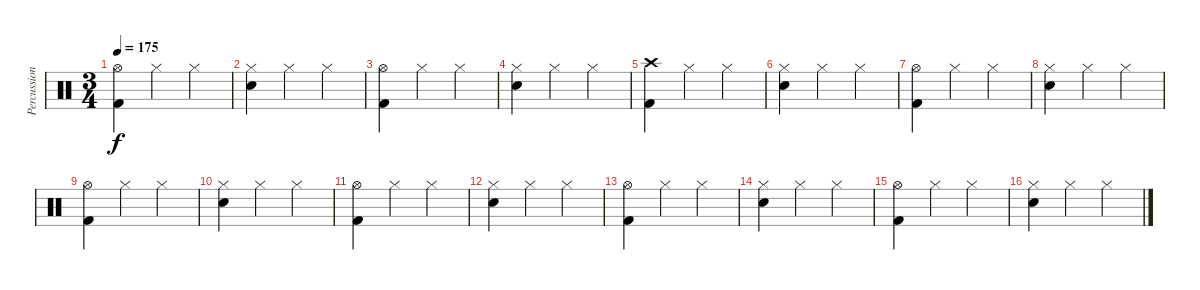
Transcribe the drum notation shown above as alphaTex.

\track ("Percussion" "Percussion") {instrument percussion}
\staff {score}
\articulation defaults
\ts (3 4)
\tempo 175
\clef neutral
\ks c
("Hi-Hat (open)" "Kick (hit) 2").4{dy f} "Hi-Hat (closed)".4 "Hi-Hat (closed)".4 |
("Electric Snare (hit)" "Hi-Hat (closed)").4 "Hi-Hat (closed)".4 "Hi-Hat (closed)".4 |
("Hi-Hat (open)" "Kick (hit) 2").4 "Hi-Hat (closed)".4 "Hi-Hat (closed)".4 |
("Electric Snare (hit)" "Hi-Hat (closed)").4 "Hi-Hat (closed)".4 "Hi-Hat (closed)".4 |
("Crash high (hit)" "Kick (hit) 2").4 "Hi-Hat (closed)".4 "Hi-Hat (closed)".4 |
("Electric Snare (hit)" "Hi-Hat (closed)").4 "Hi-Hat (closed)".4 "Hi-Hat (closed)".4 |
("Hi-Hat (open)" "Kick (hit) 2").4 "Hi-Hat (closed)".4 "Hi-Hat (closed)".4 |
("Electric Snare (hit)" "Hi-Hat (closed)").4 "Hi-Hat (closed)".4 "Hi-Hat (closed)".4 |
("Hi-Hat (open)" "Kick (hit) 2").4 "Hi-Hat (closed)".4 "Hi-Hat (closed)".4 |
("Electric Snare (hit)" "Hi-Hat (closed)").4 "Hi-Hat (closed)".4 "Hi-Hat (closed)".4 |
("Hi-Hat (open)" "Kick (hit) 2").4 "Hi-Hat (closed)".4 "Hi-Hat (closed)".4 |
("Electric Snare (hit)" "Hi-Hat (closed)").4 "Hi-Hat (closed)".4 "Hi-Hat (closed)".4 |
("Hi-Hat (open)" "Kick (hit) 2").4 "Hi-Hat (closed)".4 "Hi-Hat (closed)".4 |
("Electric Snare (hit)" "Hi-Hat (closed)").4 "Hi-Hat (closed)".4 "Hi-Hat (closed)".4 |
("Hi-Hat (open)" "Kick (hit) 2").4 "Hi-Hat (closed)".4 "Hi-Hat (closed)".4 |
("Electric Snare (hit)" "Hi-Hat (closed)").4 "Hi-Hat (closed)".4 "Hi-Hat (closed)".4
